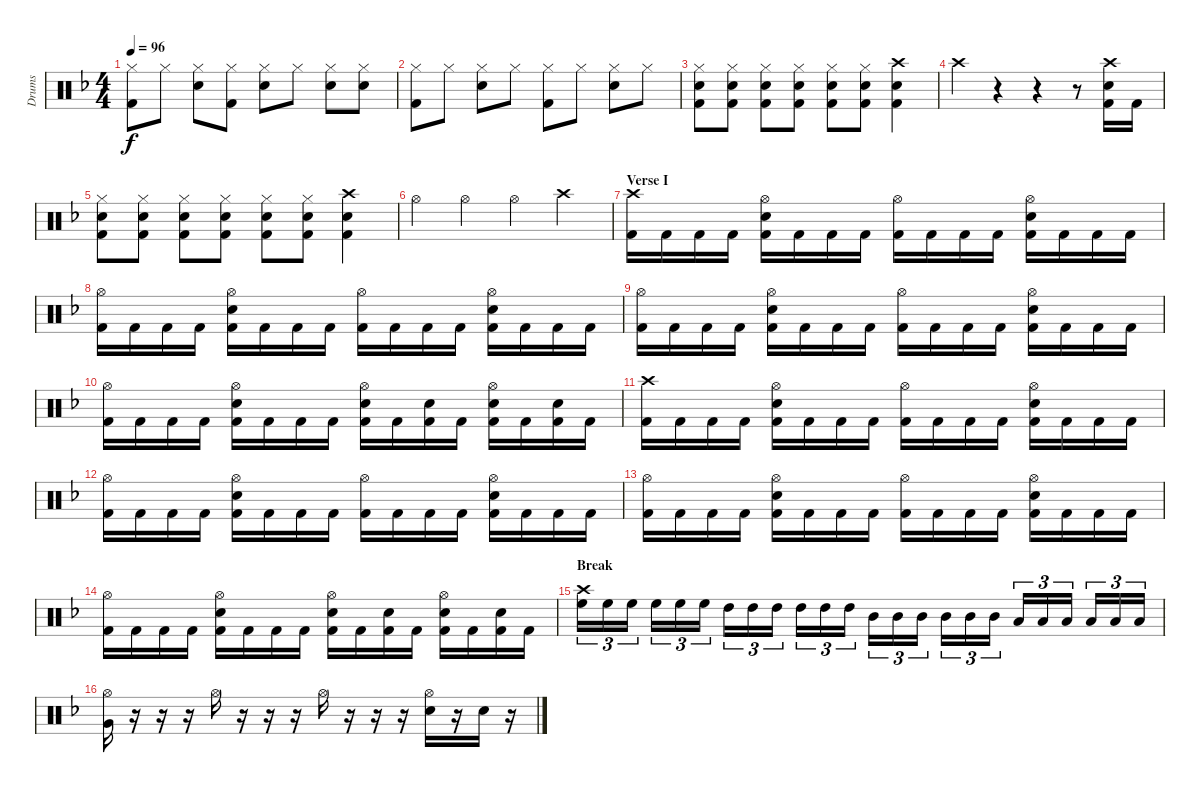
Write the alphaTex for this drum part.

\track ("Drums" "Drums") {instrument percussion}
\staff {score}
\articulation defaults
\ts (4 4)
\tempo 96
\clef neutral
\ks dminor
("Hi-Hat (closed)" "Kick (hit) 2").8{dy f} "Hi-Hat (closed)".8 ("Hi-Hat (closed)" "Snare (hit) 2").8 ("Hi-Hat (closed)" "Kick (hit) 2").8 ("Hi-Hat (closed)" "Snare (hit) 2").8 "Hi-Hat (closed)".8 ("Hi-Hat (closed)" "Snare (hit) 2").8 ("Hi-Hat (closed)" "Snare (hit) 2").8 |
("Hi-Hat (closed)" "Kick (hit) 2").8 "Hi-Hat (closed)".8 ("Hi-Hat (closed)" "Snare (hit) 2").8 "Hi-Hat (closed)".8 ("Hi-Hat (closed)" "Kick (hit) 2").8 "Hi-Hat (closed)".8 ("Hi-Hat (closed)" "Snare (hit) 2").8 "Hi-Hat (closed)".8 |
("Hi-Hat (closed)" "Snare (hit) 2" "Kick (hit) 2").8 ("Hi-Hat (closed)" "Snare (hit) 2" "Kick (hit) 2").8 ("Hi-Hat (closed)" "Snare (hit) 2" "Kick (hit) 2").8 ("Hi-Hat (closed)" "Snare (hit) 2" "Kick (hit) 2").8 ("Hi-Hat (closed)" "Snare (hit) 2" "Kick (hit) 2").8 ("Hi-Hat (closed)" "Snare (hit) 2" "Kick (hit) 2").8 ("Crash high (hit)" "Snare (hit) 2" "Kick (hit) 2").4 |
"Crash high (hit)".4 r.4 r.4 r.8 ("Crash high (hit)" "Snare (hit) 2" "Kick (hit) 2").16 "Kick (hit) 2".16 |
("Hi-Hat (closed)" "Snare (hit) 2" "Kick (hit) 2").8 ("Hi-Hat (closed)" "Snare (hit) 2" "Kick (hit) 2").8 ("Hi-Hat (closed)" "Snare (hit) 2" "Kick (hit) 2").8 ("Hi-Hat (closed)" "Snare (hit) 2" "Kick (hit) 2").8 ("Hi-Hat (closed)" "Snare (hit) 2" "Kick (hit) 2").8 ("Hi-Hat (closed)" "Snare (hit) 2" "Kick (hit) 2").8 ("Crash high (hit)" "Snare (hit) 2" "Kick (hit) 2").4 |
"Hi-Hat (open)".4 "Hi-Hat (open)".4 "Hi-Hat (open)".4 "Crash high (hit)".4 |
\section ("" "Verse I")
("Crash high (hit)" "Kick (hit) 2").16 "Kick (hit) 2".16 "Kick (hit) 2".16 "Kick (hit) 2".16 ("Hi-Hat (open)" "Snare (hit) 2" "Kick (hit) 2").16 "Kick (hit) 2".16 "Kick (hit) 2".16 "Kick (hit) 2".16 ("Hi-Hat (open)" "Kick (hit) 2").16 "Kick (hit) 2".16 "Kick (hit) 2".16 "Kick (hit) 2".16 ("Hi-Hat (open)" "Snare (hit) 2" "Kick (hit) 2").16 "Kick (hit) 2".16 "Kick (hit) 2".16 "Kick (hit) 2".16 |
("Hi-Hat (open)" "Kick (hit) 2").16 "Kick (hit) 2".16 "Kick (hit) 2".16 "Kick (hit) 2".16 ("Hi-Hat (open)" "Snare (hit) 2" "Kick (hit) 2").16 "Kick (hit) 2".16 "Kick (hit) 2".16 "Kick (hit) 2".16 ("Hi-Hat (open)" "Kick (hit) 2").16 "Kick (hit) 2".16 "Kick (hit) 2".16 "Kick (hit) 2".16 ("Hi-Hat (open)" "Snare (hit) 2" "Kick (hit) 2").16 "Kick (hit) 2".16 "Kick (hit) 2".16 "Kick (hit) 2".16 |
("Hi-Hat (open)" "Kick (hit) 2").16 "Kick (hit) 2".16 "Kick (hit) 2".16 "Kick (hit) 2".16 ("Hi-Hat (open)" "Snare (hit) 2" "Kick (hit) 2").16 "Kick (hit) 2".16 "Kick (hit) 2".16 "Kick (hit) 2".16 ("Hi-Hat (open)" "Kick (hit) 2").16 "Kick (hit) 2".16 "Kick (hit) 2".16 "Kick (hit) 2".16 ("Hi-Hat (open)" "Snare (hit) 2" "Kick (hit) 2").16 "Kick (hit) 2".16 "Kick (hit) 2".16 "Kick (hit) 2".16 |
("Hi-Hat (open)" "Kick (hit) 2").16 "Kick (hit) 2".16 "Kick (hit) 2".16 "Kick (hit) 2".16 ("Hi-Hat (open)" "Snare (hit) 2" "Kick (hit) 2").16 "Kick (hit) 2".16 "Kick (hit) 2".16 "Kick (hit) 2".16 ("Hi-Hat (open)" "Snare (hit) 2" "Kick (hit) 2").16 "Kick (hit) 2".16 ("Snare (hit) 2" "Kick (hit) 2").16 "Kick (hit) 2".16 ("Hi-Hat (open)" "Snare (hit) 2" "Kick (hit) 2").16 "Kick (hit) 2".16 ("Snare (hit) 2" "Kick (hit) 2").16 "Kick (hit) 2".16 |
("Crash high (hit)" "Kick (hit) 2").16 "Kick (hit) 2".16 "Kick (hit) 2".16 "Kick (hit) 2".16 ("Hi-Hat (open)" "Snare (hit) 2" "Kick (hit) 2").16 "Kick (hit) 2".16 "Kick (hit) 2".16 "Kick (hit) 2".16 ("Hi-Hat (open)" "Kick (hit) 2").16 "Kick (hit) 2".16 "Kick (hit) 2".16 "Kick (hit) 2".16 ("Hi-Hat (open)" "Snare (hit) 2" "Kick (hit) 2").16 "Kick (hit) 2".16 "Kick (hit) 2".16 "Kick (hit) 2".16 |
("Hi-Hat (open)" "Kick (hit) 2").16 "Kick (hit) 2".16 "Kick (hit) 2".16 "Kick (hit) 2".16 ("Hi-Hat (open)" "Snare (hit) 2" "Kick (hit) 2").16 "Kick (hit) 2".16 "Kick (hit) 2".16 "Kick (hit) 2".16 ("Hi-Hat (open)" "Kick (hit) 2").16 "Kick (hit) 2".16 "Kick (hit) 2".16 "Kick (hit) 2".16 ("Hi-Hat (open)" "Snare (hit) 2" "Kick (hit) 2").16 "Kick (hit) 2".16 "Kick (hit) 2".16 "Kick (hit) 2".16 |
("Hi-Hat (open)" "Kick (hit) 2").16 "Kick (hit) 2".16 "Kick (hit) 2".16 "Kick (hit) 2".16 ("Hi-Hat (open)" "Snare (hit) 2" "Kick (hit) 2").16 "Kick (hit) 2".16 "Kick (hit) 2".16 "Kick (hit) 2".16 ("Hi-Hat (open)" "Kick (hit) 2").16 "Kick (hit) 2".16 "Kick (hit) 2".16 "Kick (hit) 2".16 ("Hi-Hat (open)" "Snare (hit) 2" "Kick (hit) 2").16 "Kick (hit) 2".16 "Kick (hit) 2".16 "Kick (hit) 2".16 |
("Hi-Hat (open)" "Kick (hit) 2").16 "Kick (hit) 2".16 "Kick (hit) 2".16 "Kick (hit) 2".16 ("Hi-Hat (open)" "Snare (hit) 2" "Kick (hit) 2").16 "Kick (hit) 2".16 "Kick (hit) 2".16 "Kick (hit) 2".16 ("Hi-Hat (open)" "Snare (hit) 2" "Kick (hit) 2").16 "Kick (hit) 2".16 ("Snare (hit) 2" "Kick (hit) 2").16 "Kick (hit) 2".16 ("Hi-Hat (open)" "Snare (hit) 2" "Kick (hit) 2").16 "Kick (hit) 2".16 ("Snare (hit) 2" "Kick (hit) 2").16 "Kick (hit) 2".16 |
\section ("" "Break")
("Crash high (hit)" "High Floor Tom (hit)").16{tu (3 2)} "High Floor Tom (hit)".16{tu (3 2)} "High Floor Tom (hit)".16{tu (3 2)} "High Floor Tom (hit)".16{tu (3 2)} "High Floor Tom (hit)".16{tu (3 2)} "High Floor Tom (hit)".16{tu (3 2)} "High Tom (hit)".16{tu (3 2)} "High Tom (hit)".16{tu (3 2)} "High Tom (hit)".16{tu (3 2)} "High Tom (hit)".16{tu (3 2)} "High Tom (hit)".16{tu (3 2)} "High Tom (hit)".16{tu (3 2)} "Mid Tom (hit)".16{tu (3 2)} "Mid Tom (hit)".16{tu (3 2)} "Mid Tom (hit)".16{tu (3 2)} "Mid Tom (hit)".16{tu (3 2)} "Mid Tom (hit)".16{tu (3 2)} "Mid Tom (hit)".16{tu (3 2)} "Low Tom (hit)".16{tu (3 2)} "Low Tom (hit)".16{tu (3 2)} "Low Tom (hit)".16{tu (3 2)} "Low Tom (hit)".16{tu (3 2)} "Low Tom (hit)".16{tu (3 2)} "Low Tom (hit)".16{tu (3 2)} |
("Hi-Hat (open)" "Very Low Tom (hit)").16 r.16 r.16 r.16 "Hi-Hat (open)".16 r.16 r.16 r.16 "Hi-Hat (open)".16 r.16 r.16 r.16 ("Hi-Hat (open)" "Snare (hit) 2").16 r.16 "Snare (hit) 2".16 r.16
